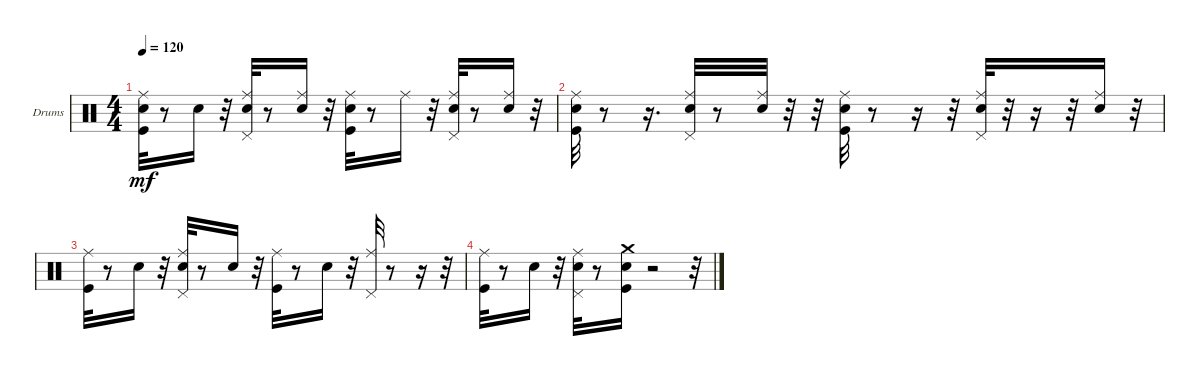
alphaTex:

\bracketExtendMode groupsimilarinstruments
\firstSystemTrackNameOrientation horizontal
\otherSystemsTrackNameOrientation horizontal
\track ("Drums   (BB)" "Drums") {instrument percussion}
\staff {score}
\articulation defaults
\ts (4 4)
\tempo 120
\clef neutral
\ks c
("Kick (hit)" "Snare (hit) 2" "Ride (middle)").32{dy mf} r.8 "Snare (hit) 2".16 r.32 ("Snare (hit) 2" "Ride (middle)" "Pedal Hi-Hat (hit)").32 r.8 ("Snare (hit) 2" "Ride (middle)").16 r.32 ("Kick (hit)" "Snare (hit) 2" "Ride (middle)").32 r.8 "Ride (middle)".16 r.32 ("Snare (hit) 2" "Ride (middle)" "Pedal Hi-Hat (hit)").32 r.8 ("Snare (hit) 2" "Ride (middle)").16 r.32 |
("Kick (hit)" "Snare (hit) 2" "Ride (middle)").32 r.8 r.16{d} ("Snare (hit) 2" "Ride (middle)" "Pedal Hi-Hat (hit)").32 r.8 ("Snare (hit) 2" "Ride (middle)").32 r.32 r.32 ("Kick (hit)" "Snare (hit) 2" "Ride (middle)").32 r.8 r.16 r.32 ("Snare (hit) 2" "Ride (middle)" "Pedal Hi-Hat (hit)").32 r.32 r.16 r.32 ("Snare (hit) 2" "Ride (middle)").16 r.32 |
("Kick (hit)" "Ride (middle)").32 r.8 "Snare (hit) 2".16 r.32 ("Snare (hit) 2" "Ride (middle)" "Pedal Hi-Hat (hit)").32 r.8 "Snare (hit) 2".16 r.32 ("Kick (hit)" "Ride (middle)").32 r.8 "Snare (hit) 2".16 r.32 ("Ride (middle)" "Pedal Hi-Hat (hit)").32 r.8 r.16 r.32 |
("Kick (hit)" "Ride (middle)").32 r.8 "Snare (hit) 2".16 r.32 ("Snare (hit) 2" "Ride (middle)" "Pedal Hi-Hat (hit)").32 r.8 ("Kick (hit)" "Snare (hit) 2" "Crash medium (hit)").16 r.2 r.32
